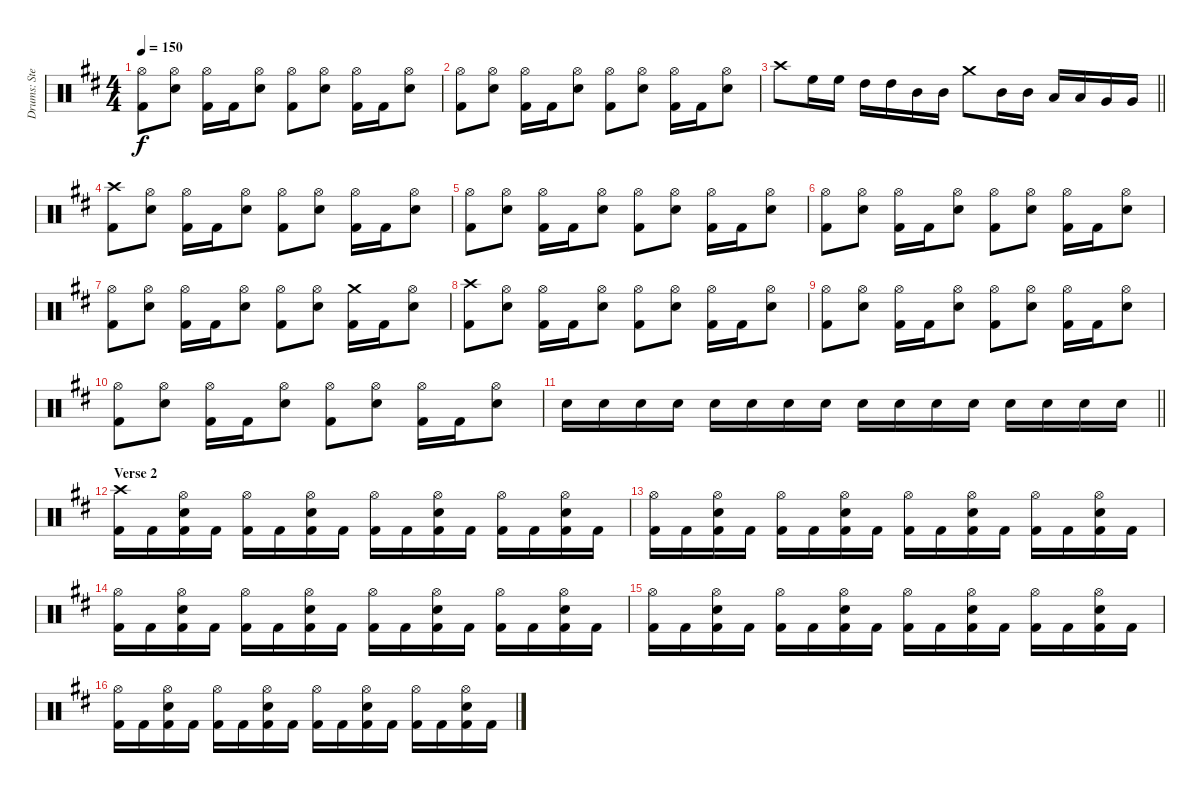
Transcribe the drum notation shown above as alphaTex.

\track ("Drums: Stefan Svantesson" "Drums: Ste") {instrument percussion}
\staff {score}
\articulation defaults
\ts (4 4)
\tempo 150
\clef neutral
\ks d
("Hi-Hat (open)" "Kick (hit) 2").8{dy f} ("Hi-Hat (open)" "Electric Snare (hit)").8 ("Hi-Hat (open)" "Kick (hit) 2").16 "Kick (hit) 2".16 ("Hi-Hat (open)" "Electric Snare (hit)").8 ("Hi-Hat (open)" "Kick (hit) 2").8 ("Hi-Hat (open)" "Electric Snare (hit)").8 ("Hi-Hat (open)" "Kick (hit) 2").16 "Kick (hit) 2".16 ("Hi-Hat (open)" "Electric Snare (hit)").8 |
("Hi-Hat (open)" "Kick (hit) 2").8 ("Hi-Hat (open)" "Electric Snare (hit)").8 ("Hi-Hat (open)" "Kick (hit) 2").16 "Kick (hit) 2".16 ("Hi-Hat (open)" "Electric Snare (hit)").8 ("Hi-Hat (open)" "Kick (hit) 2").8 ("Hi-Hat (open)" "Electric Snare (hit)").8 ("Hi-Hat (open)" "Kick (hit) 2").16 "Kick (hit) 2".16 ("Hi-Hat (open)" "Electric Snare (hit)").8 |
\barLineRight lightlight "Crash high (hit)".8 "High Floor Tom (hit)".16 "High Floor Tom (hit)".16 "High Tom (hit)".16 "High Tom (hit)".16 "Mid Tom (hit)".16 "Mid Tom (hit)".16 "Crash medium (hit)".8 "Mid Tom (hit)".16 "Mid Tom (hit)".16 "Low Tom (hit)".16 "Low Tom (hit)".16 "Very Low Tom (hit)".16 "Very Low Tom (hit)".16
|
("Crash high (hit)" "Kick (hit) 2").8 ("Hi-Hat (open)" "Electric Snare (hit)").8 ("Hi-Hat (open)" "Kick (hit) 2").16 "Kick (hit) 2".16 ("Hi-Hat (open)" "Electric Snare (hit)").8 ("Hi-Hat (open)" "Kick (hit) 2").8 ("Hi-Hat (open)" "Electric Snare (hit)").8 ("Hi-Hat (open)" "Kick (hit) 2").16 "Kick (hit) 2".16 ("Hi-Hat (open)" "Electric Snare (hit)").8 |
("Hi-Hat (open)" "Kick (hit) 2").8 ("Hi-Hat (open)" "Electric Snare (hit)").8 ("Hi-Hat (open)" "Kick (hit) 2").16 "Kick (hit) 2".16 ("Hi-Hat (open)" "Electric Snare (hit)").8 ("Hi-Hat (open)" "Kick (hit) 2").8 ("Hi-Hat (open)" "Electric Snare (hit)").8 ("Hi-Hat (open)" "Kick (hit) 2").16 "Kick (hit) 2".16 ("Hi-Hat (open)" "Electric Snare (hit)").8 |
("Hi-Hat (open)" "Kick (hit) 2").8 ("Hi-Hat (open)" "Electric Snare (hit)").8 ("Hi-Hat (open)" "Kick (hit) 2").16 "Kick (hit) 2".16 ("Hi-Hat (open)" "Electric Snare (hit)").8 ("Hi-Hat (open)" "Kick (hit) 2").8 ("Hi-Hat (open)" "Electric Snare (hit)").8 ("Hi-Hat (open)" "Kick (hit) 2").16 "Kick (hit) 2".16 ("Hi-Hat (open)" "Electric Snare (hit)").8 |
("Hi-Hat (open)" "Kick (hit) 2").8 ("Hi-Hat (open)" "Electric Snare (hit)").8 ("Hi-Hat (open)" "Kick (hit) 2").16 "Kick (hit) 2".16 ("Hi-Hat (open)" "Electric Snare (hit)").8 ("Hi-Hat (open)" "Kick (hit) 2").8 ("Hi-Hat (open)" "Electric Snare (hit)").8 ("Crash medium (hit)" "Kick (hit) 2").16 "Kick (hit) 2".16 ("Hi-Hat (open)" "Electric Snare (hit)").8 |
("Crash high (hit)" "Kick (hit) 2").8 ("Hi-Hat (open)" "Electric Snare (hit)").8 ("Hi-Hat (open)" "Kick (hit) 2").16 "Kick (hit) 2".16 ("Hi-Hat (open)" "Electric Snare (hit)").8 ("Hi-Hat (open)" "Kick (hit) 2").8 ("Hi-Hat (open)" "Electric Snare (hit)").8 ("Hi-Hat (open)" "Kick (hit) 2").16 "Kick (hit) 2".16 ("Hi-Hat (open)" "Electric Snare (hit)").8 |
("Hi-Hat (open)" "Kick (hit) 2").8 ("Hi-Hat (open)" "Electric Snare (hit)").8 ("Hi-Hat (open)" "Kick (hit) 2").16 "Kick (hit) 2".16 ("Hi-Hat (open)" "Electric Snare (hit)").8 ("Hi-Hat (open)" "Kick (hit) 2").8 ("Hi-Hat (open)" "Electric Snare (hit)").8 ("Hi-Hat (open)" "Kick (hit) 2").16 "Kick (hit) 2".16 ("Hi-Hat (open)" "Electric Snare (hit)").8 |
("Hi-Hat (open)" "Kick (hit) 2").8 ("Hi-Hat (open)" "Electric Snare (hit)").8 ("Hi-Hat (open)" "Kick (hit) 2").16 "Kick (hit) 2".16 ("Hi-Hat (open)" "Electric Snare (hit)").8 ("Hi-Hat (open)" "Kick (hit) 2").8 ("Hi-Hat (open)" "Electric Snare (hit)").8 ("Hi-Hat (open)" "Kick (hit) 2").16 "Kick (hit) 2".16 ("Hi-Hat (open)" "Electric Snare (hit)").8 |
\barLineRight lightlight "Electric Snare (hit)".16 "Electric Snare (hit)".16 "Electric Snare (hit)".16 "Electric Snare (hit)".16 "Electric Snare (hit)".16 "Electric Snare (hit)".16 "Electric Snare (hit)".16 "Electric Snare (hit)".16 "Electric Snare (hit)".16 "Electric Snare (hit)".16 "Electric Snare (hit)".16 "Electric Snare (hit)".16 "Electric Snare (hit)".16 "Electric Snare (hit)".16 "Electric Snare (hit)".16 "Electric Snare (hit)".16
|
\section ("" "Verse 2")
("Crash high (hit)" "Kick (hit) 2").16 "Kick (hit) 2".16 ("Hi-Hat (open)" "Electric Snare (hit)" "Kick (hit) 2").16 "Kick (hit) 2".16 ("Hi-Hat (open)" "Kick (hit) 2").16 "Kick (hit) 2".16 ("Hi-Hat (open)" "Electric Snare (hit)" "Kick (hit) 2").16 "Kick (hit) 2".16 ("Hi-Hat (open)" "Kick (hit) 2").16 "Kick (hit) 2".16 ("Hi-Hat (open)" "Electric Snare (hit)" "Kick (hit) 2").16 "Kick (hit) 2".16 ("Hi-Hat (open)" "Kick (hit) 2").16 "Kick (hit) 2".16 ("Hi-Hat (open)" "Electric Snare (hit)" "Kick (hit) 2").16 "Kick (hit) 2".16 |
("Hi-Hat (open)" "Kick (hit) 2").16 "Kick (hit) 2".16 ("Hi-Hat (open)" "Electric Snare (hit)" "Kick (hit) 2").16 "Kick (hit) 2".16 ("Hi-Hat (open)" "Kick (hit) 2").16 "Kick (hit) 2".16 ("Hi-Hat (open)" "Electric Snare (hit)" "Kick (hit) 2").16 "Kick (hit) 2".16 ("Hi-Hat (open)" "Kick (hit) 2").16 "Kick (hit) 2".16 ("Hi-Hat (open)" "Electric Snare (hit)" "Kick (hit) 2").16 "Kick (hit) 2".16 ("Hi-Hat (open)" "Kick (hit) 2").16 "Kick (hit) 2".16 ("Hi-Hat (open)" "Electric Snare (hit)" "Kick (hit) 2").16 "Kick (hit) 2".16 |
("Hi-Hat (open)" "Kick (hit) 2").16 "Kick (hit) 2".16 ("Hi-Hat (open)" "Electric Snare (hit)" "Kick (hit) 2").16 "Kick (hit) 2".16 ("Hi-Hat (open)" "Kick (hit) 2").16 "Kick (hit) 2".16 ("Hi-Hat (open)" "Electric Snare (hit)" "Kick (hit) 2").16 "Kick (hit) 2".16 ("Hi-Hat (open)" "Kick (hit) 2").16 "Kick (hit) 2".16 ("Hi-Hat (open)" "Electric Snare (hit)" "Kick (hit) 2").16 "Kick (hit) 2".16 ("Hi-Hat (open)" "Kick (hit) 2").16 "Kick (hit) 2".16 ("Hi-Hat (open)" "Electric Snare (hit)" "Kick (hit) 2").16 "Kick (hit) 2".16 |
("Hi-Hat (open)" "Kick (hit) 2").16 "Kick (hit) 2".16 ("Hi-Hat (open)" "Electric Snare (hit)" "Kick (hit) 2").16 "Kick (hit) 2".16 ("Hi-Hat (open)" "Kick (hit) 2").16 "Kick (hit) 2".16 ("Hi-Hat (open)" "Electric Snare (hit)" "Kick (hit) 2").16 "Kick (hit) 2".16 ("Hi-Hat (open)" "Kick (hit) 2").16 "Kick (hit) 2".16 ("Hi-Hat (open)" "Electric Snare (hit)" "Kick (hit) 2").16 "Kick (hit) 2".16 ("Hi-Hat (open)" "Kick (hit) 2").16 "Kick (hit) 2".16 ("Hi-Hat (open)" "Electric Snare (hit)" "Kick (hit) 2").16 "Kick (hit) 2".16 |
("Hi-Hat (open)" "Kick (hit) 2").16 "Kick (hit) 2".16 ("Hi-Hat (open)" "Electric Snare (hit)" "Kick (hit) 2").16 "Kick (hit) 2".16 ("Hi-Hat (open)" "Kick (hit) 2").16 "Kick (hit) 2".16 ("Hi-Hat (open)" "Electric Snare (hit)" "Kick (hit) 2").16 "Kick (hit) 2".16 ("Hi-Hat (open)" "Kick (hit) 2").16 "Kick (hit) 2".16 ("Hi-Hat (open)" "Electric Snare (hit)" "Kick (hit) 2").16 "Kick (hit) 2".16 ("Hi-Hat (open)" "Kick (hit) 2").16 "Kick (hit) 2".16 ("Hi-Hat (open)" "Electric Snare (hit)" "Kick (hit) 2").16 "Kick (hit) 2".16
